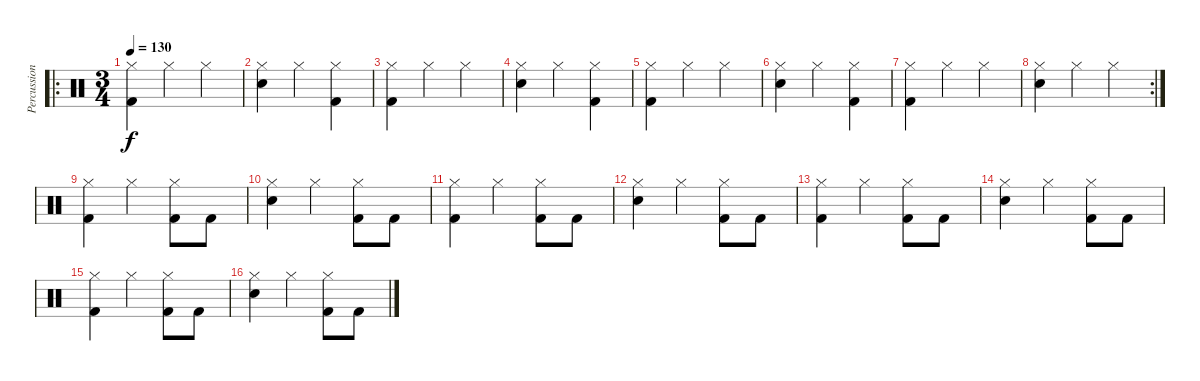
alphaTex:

\track ("Percussion" "Percussion") {instrument percussion}
\staff {score}
\articulation defaults
\ro
\ts (3 4)
\tempo 130
\clef neutral
\ks c
("Hi-Hat (closed)" "Kick (hit) 2").4{dy f} "Hi-Hat (closed)".4 "Hi-Hat (closed)".4 |
("Hi-Hat (closed)" "Electric Snare (hit)").4 "Hi-Hat (closed)".4 ("Hi-Hat (closed)" "Kick (hit) 2").4 |
("Hi-Hat (closed)" "Kick (hit) 2").4 "Hi-Hat (closed)".4 "Hi-Hat (closed)".4 |
("Hi-Hat (closed)" "Electric Snare (hit)").4 "Hi-Hat (closed)".4 ("Hi-Hat (closed)" "Kick (hit) 2").4 |
("Hi-Hat (closed)" "Kick (hit) 2").4 "Hi-Hat (closed)".4 "Hi-Hat (closed)".4 |
("Hi-Hat (closed)" "Electric Snare (hit)").4 "Hi-Hat (closed)".4 ("Hi-Hat (closed)" "Kick (hit) 2").4 |
("Hi-Hat (closed)" "Kick (hit) 2").4 "Hi-Hat (closed)".4 "Hi-Hat (closed)".4 |
\rc 2
("Hi-Hat (closed)" "Electric Snare (hit)").4 "Hi-Hat (closed)".4 "Hi-Hat (closed)".4 |
("Hi-Hat (closed)" "Kick (hit) 2").4 "Hi-Hat (closed)".4 ("Hi-Hat (closed)" "Kick (hit) 2").8 "Kick (hit) 2".8 |
("Hi-Hat (closed)" "Electric Snare (hit)").4 "Hi-Hat (closed)".4 ("Hi-Hat (closed)" "Kick (hit) 2").8 "Kick (hit) 2".8 |
("Hi-Hat (closed)" "Kick (hit) 2").4 "Hi-Hat (closed)".4 ("Hi-Hat (closed)" "Kick (hit) 2").8 "Kick (hit) 2".8 |
("Hi-Hat (closed)" "Electric Snare (hit)").4 "Hi-Hat (closed)".4 ("Hi-Hat (closed)" "Kick (hit) 2").8 "Kick (hit) 2".8 |
("Hi-Hat (closed)" "Kick (hit) 2").4 "Hi-Hat (closed)".4 ("Hi-Hat (closed)" "Kick (hit) 2").8 "Kick (hit) 2".8 |
("Hi-Hat (closed)" "Electric Snare (hit)").4 "Hi-Hat (closed)".4 ("Hi-Hat (closed)" "Kick (hit) 2").8 "Kick (hit) 2".8 |
("Hi-Hat (closed)" "Kick (hit) 2").4 "Hi-Hat (closed)".4 ("Hi-Hat (closed)" "Kick (hit) 2").8 "Kick (hit) 2".8 |
("Hi-Hat (closed)" "Electric Snare (hit)").4 "Hi-Hat (closed)".4 ("Hi-Hat (closed)" "Kick (hit) 2").8 "Kick (hit) 2".8
